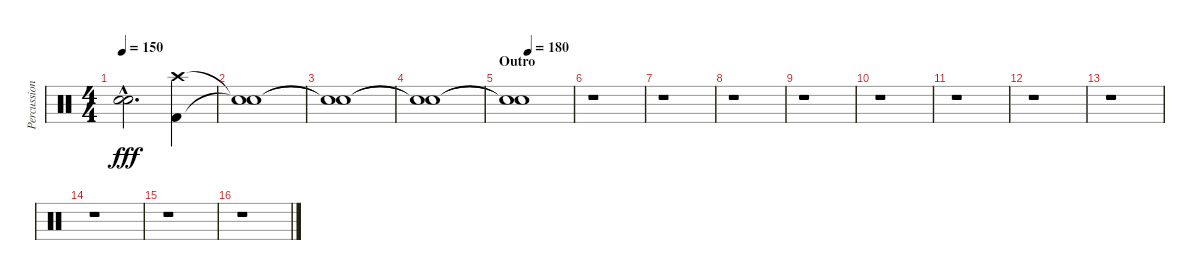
\track ("Percussion" "Percussion") {instrument percussion}
\staff {score}
\articulation defaults
\ts (4 4)
\tempo 150
\clef neutral
\ks c
("Snare (hit)"{hac t} "Snare (hit)"{hac t}).2{d dy fff} ("Crash high (hit)" "Kick (hit) 2").4 |
("Snare (hit)"{t} "Snare (hit)"{t}).1 |
("Snare (hit)"{t} "Snare (hit)"{t}).1 |
("Snare (hit)"{t} "Snare (hit)"{t}).1 |
\section ("" "Outro")
\tempo (180 0.25)
("Snare (hit)"{t} "Snare (hit)"{t}).1 |
r.1 |
r.1 |
r.1 |
r.1 |
r.1 |
r.1 |
r.1 |
r.1 |
r.1 |
r.1 |
r.1
